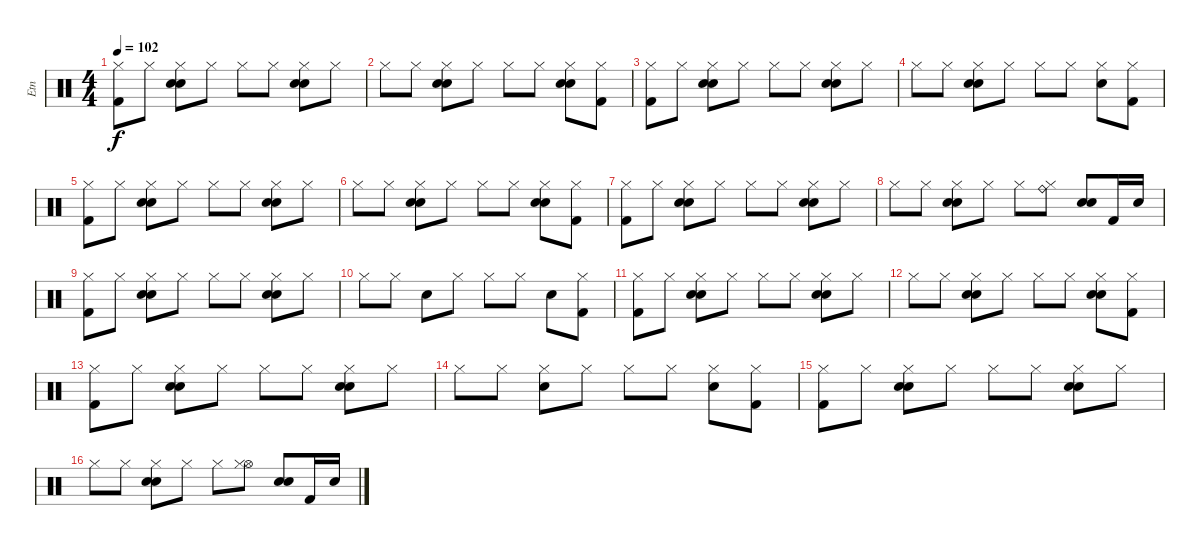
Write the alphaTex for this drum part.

\track ("Etn" "Etn") {instrument percussion}
\staff {score}
\articulation defaults
\ts (4 4)
\tempo 102
\clef neutral
\ks c
("Hi-Hat (closed)"{x} "Kick (hit) 2").8{dy f} "Hi-Hat (closed)"{x}.8 ("Hi-Hat (closed)"{x} "Snare (hit) 2" "Snare (hit) 2").8 "Hi-Hat (closed)"{x}.8 "Hi-Hat (closed)"{x}.8 "Hi-Hat (closed)"{x}.8 ("Hi-Hat (closed)"{x} "Snare (hit) 2" "Snare (hit) 2").8 "Hi-Hat (closed)"{x}.8 |
"Hi-Hat (closed)"{x}.8 "Hi-Hat (closed)"{x}.8 ("Hi-Hat (closed)"{x} "Snare (hit) 2" "Snare (hit) 2").8 "Hi-Hat (closed)"{x}.8 "Hi-Hat (closed)"{x}.8 "Hi-Hat (closed)"{x}.8 ("Hi-Hat (closed)"{x} "Snare (hit) 2" "Snare (hit) 2").8 ("Hi-Hat (closed)"{x} "Kick (hit) 2").8 |
("Hi-Hat (closed)"{x} "Kick (hit) 2").8 "Hi-Hat (closed)"{x}.8 ("Hi-Hat (closed)"{x} "Snare (hit) 2" "Snare (hit) 2").8 "Hi-Hat (closed)"{x}.8 "Hi-Hat (closed)"{x}.8 "Hi-Hat (closed)"{x}.8 ("Hi-Hat (closed)"{x} "Snare (hit) 2" "Snare (hit) 2").8 "Hi-Hat (closed)"{x}.8 |
"Hi-Hat (closed)"{x}.8 "Hi-Hat (closed)"{x}.8 ("Hi-Hat (closed)"{x} "Snare (hit) 2" "Snare (hit) 2").8 "Hi-Hat (closed)"{x}.8 "Hi-Hat (closed)"{x}.8 "Hi-Hat (closed)"{x}.8 ("Hi-Hat (closed)"{x} "Snare (hit) 2").8 ("Hi-Hat (closed)"{x} "Kick (hit) 2").8 |
("Hi-Hat (closed)"{x} "Kick (hit) 2").8 "Hi-Hat (closed)"{x}.8 ("Hi-Hat (closed)"{x} "Snare (hit) 2" "Snare (hit) 2").8 "Hi-Hat (closed)"{x}.8 "Hi-Hat (closed)"{x}.8 "Hi-Hat (closed)"{x}.8 ("Hi-Hat (closed)"{x} "Snare (hit) 2" "Snare (hit) 2").8 "Hi-Hat (closed)"{x}.8 |
"Hi-Hat (closed)"{x}.8 "Hi-Hat (closed)"{x}.8 ("Hi-Hat (closed)"{x} "Snare (hit) 2" "Snare (hit) 2").8 "Hi-Hat (closed)"{x}.8 "Hi-Hat (closed)"{x}.8 "Hi-Hat (closed)"{x}.8 ("Hi-Hat (closed)"{x} "Snare (hit) 2" "Snare (hit) 2").8 ("Hi-Hat (closed)"{x} "Kick (hit) 2").8 |
("Hi-Hat (closed)"{x} "Kick (hit) 2").8 "Hi-Hat (closed)"{x}.8 ("Hi-Hat (closed)"{x} "Snare (hit) 2" "Snare (hit) 2").8 "Hi-Hat (closed)"{x}.8 "Hi-Hat (closed)"{x}.8 "Hi-Hat (closed)"{x}.8 ("Hi-Hat (closed)"{x} "Snare (hit) 2" "Snare (hit) 2").8 "Hi-Hat (closed)"{x}.8 |
"Hi-Hat (closed)"{x}.8 "Hi-Hat (closed)"{x}.8 ("Hi-Hat (closed)"{x} "Snare (hit) 2" "Snare (hit) 2").8 "Hi-Hat (closed)"{x}.8 "Hi-Hat (closed)"{x}.8 ("Ride (bell)" "Hi-Hat (closed)"{x}).8 ("Snare (hit) 2" "Snare (hit) 2").8 "Kick (hit) 2".16 "Snare (hit) 2".16 |
("Hi-Hat (closed)"{x} "Kick (hit) 2").8 "Hi-Hat (closed)"{x}.8 ("Hi-Hat (closed)"{x} "Snare (hit) 2" "Snare (hit) 2").8 "Hi-Hat (closed)"{x}.8 "Hi-Hat (closed)"{x}.8 "Hi-Hat (closed)"{x}.8 ("Hi-Hat (closed)"{x} "Snare (hit) 2" "Snare (hit) 2").8 "Hi-Hat (closed)"{x}.8 |
"Hi-Hat (closed)"{x}.8 "Hi-Hat (closed)"{x}.8 "Snare (hit) 2".8 "Hi-Hat (closed)"{x}.8 "Hi-Hat (closed)"{x}.8 "Hi-Hat (closed)"{x}.8 "Snare (hit) 2".8 ("Hi-Hat (closed)"{x} "Kick (hit) 2").8 |
("Hi-Hat (closed)"{x} "Kick (hit) 2").8 "Hi-Hat (closed)"{x}.8 ("Hi-Hat (closed)"{x} "Snare (hit) 2" "Snare (hit) 2").8 "Hi-Hat (closed)"{x}.8 "Hi-Hat (closed)"{x}.8 "Hi-Hat (closed)"{x}.8 ("Hi-Hat (closed)"{x} "Snare (hit) 2" "Snare (hit) 2").8 "Hi-Hat (closed)"{x}.8 |
"Hi-Hat (closed)"{x}.8 "Hi-Hat (closed)"{x}.8 ("Hi-Hat (closed)"{x} "Snare (hit) 2" "Snare (hit) 2").8 "Hi-Hat (closed)"{x}.8 "Hi-Hat (closed)"{x}.8 "Hi-Hat (closed)"{x}.8 ("Hi-Hat (closed)"{x} "Snare (hit) 2" "Snare (hit) 2").8 ("Hi-Hat (closed)"{x} "Kick (hit) 2").8 |
("Hi-Hat (closed)"{x} "Kick (hit) 2").8 "Hi-Hat (closed)"{x}.8 ("Hi-Hat (closed)"{x} "Snare (hit) 2" "Snare (hit) 2").8 "Hi-Hat (closed)"{x}.8 "Hi-Hat (closed)"{x}.8 "Hi-Hat (closed)"{x}.8 ("Hi-Hat (closed)"{x} "Snare (hit) 2" "Snare (hit) 2").8 "Hi-Hat (closed)"{x}.8 |
"Hi-Hat (closed)"{x}.8 "Hi-Hat (closed)"{x}.8 ("Hi-Hat (closed)"{x} "Snare (hit) 2").8 "Hi-Hat (closed)"{x}.8 "Hi-Hat (closed)"{x}.8 "Hi-Hat (closed)"{x}.8 ("Hi-Hat (closed)"{x} "Snare (hit) 2").8 ("Hi-Hat (closed)"{x} "Kick (hit) 2").8 |
("Hi-Hat (closed)"{x} "Kick (hit) 2").8 "Hi-Hat (closed)"{x}.8 ("Hi-Hat (closed)"{x} "Snare (hit) 2" "Snare (hit) 2").8 "Hi-Hat (closed)"{x}.8 "Hi-Hat (closed)"{x}.8 "Hi-Hat (closed)"{x}.8 ("Hi-Hat (closed)"{x} "Snare (hit) 2" "Snare (hit) 2").8 "Hi-Hat (closed)"{x}.8 |
"Hi-Hat (closed)"{x}.8 "Hi-Hat (closed)"{x}.8 ("Hi-Hat (closed)"{x} "Snare (hit) 2" "Snare (hit) 2").8 "Hi-Hat (closed)"{x}.8 "Hi-Hat (closed)"{x}.8 ("Hi-Hat (open)" "Hi-Hat (closed)"{x}).8 ("Snare (hit) 2" "Snare (hit) 2").8 "Kick (hit) 2".16 "Snare (hit) 2".16
